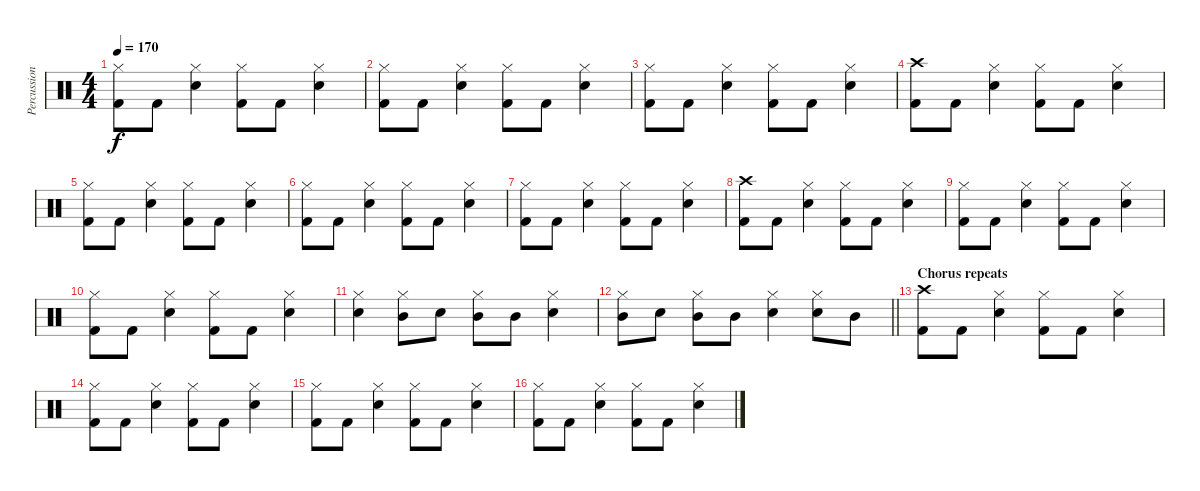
\track ("Percussion" "Percussion") {instrument percussion}
\staff {score}
\articulation defaults
\ts (4 4)
\tempo 170
\clef neutral
\ks c
("Hi-Hat (closed)" "Kick (hit) 2").8{dy f} "Kick (hit) 2".8 ("Hi-Hat (closed)" "Electric Snare (hit)").4 ("Hi-Hat (closed)" "Kick (hit) 2").8 "Kick (hit) 2".8 ("Hi-Hat (closed)" "Electric Snare (hit)").4 |
("Hi-Hat (closed)" "Kick (hit) 2").8 "Kick (hit) 2".8 ("Hi-Hat (closed)" "Electric Snare (hit)").4 ("Hi-Hat (closed)" "Kick (hit) 2").8 "Kick (hit) 2".8 ("Hi-Hat (closed)" "Electric Snare (hit)").4 |
("Hi-Hat (closed)" "Kick (hit) 2").8 "Kick (hit) 2".8 ("Hi-Hat (closed)" "Electric Snare (hit)").4 ("Hi-Hat (closed)" "Kick (hit) 2").8 "Kick (hit) 2".8 ("Hi-Hat (closed)" "Electric Snare (hit)").4 |
("Crash high (hit)" "Kick (hit) 2").8 "Kick (hit) 2".8 ("Hi-Hat (closed)" "Electric Snare (hit)").4 ("Hi-Hat (closed)" "Kick (hit) 2").8 "Kick (hit) 2".8 ("Hi-Hat (closed)" "Electric Snare (hit)").4 |
("Hi-Hat (closed)" "Kick (hit) 2").8 "Kick (hit) 2".8 ("Hi-Hat (closed)" "Electric Snare (hit)").4 ("Hi-Hat (closed)" "Kick (hit) 2").8 "Kick (hit) 2".8 ("Hi-Hat (closed)" "Electric Snare (hit)").4 |
("Hi-Hat (closed)" "Kick (hit) 2").8 "Kick (hit) 2".8 ("Hi-Hat (closed)" "Electric Snare (hit)").4 ("Hi-Hat (closed)" "Kick (hit) 2").8 "Kick (hit) 2".8 ("Hi-Hat (closed)" "Electric Snare (hit)").4 |
("Hi-Hat (closed)" "Kick (hit) 2").8 "Kick (hit) 2".8 ("Hi-Hat (closed)" "Electric Snare (hit)").4 ("Hi-Hat (closed)" "Kick (hit) 2").8 "Kick (hit) 2".8 ("Hi-Hat (closed)" "Electric Snare (hit)").4 |
("Crash high (hit)" "Kick (hit) 2").8 "Kick (hit) 2".8 ("Hi-Hat (closed)" "Electric Snare (hit)").4 ("Hi-Hat (closed)" "Kick (hit) 2").8 "Kick (hit) 2".8 ("Hi-Hat (closed)" "Electric Snare (hit)").4 |
("Hi-Hat (closed)" "Kick (hit) 2").8 "Kick (hit) 2".8 ("Hi-Hat (closed)" "Electric Snare (hit)").4 ("Hi-Hat (closed)" "Kick (hit) 2").8 "Kick (hit) 2".8 ("Hi-Hat (closed)" "Electric Snare (hit)").4 |
("Hi-Hat (closed)" "Kick (hit) 2").8 "Kick (hit) 2".8 ("Hi-Hat (closed)" "Electric Snare (hit)").4 ("Hi-Hat (closed)" "Kick (hit) 2").8 "Kick (hit) 2".8 ("Hi-Hat (closed)" "Electric Snare (hit)").4 |
("Hi-Hat (closed)" "Electric Snare (hit)").4 ("Hi-Hat (closed)" "Mid Tom (hit)").8 "Electric Snare (hit)".8 ("Hi-Hat (closed)" "Mid Tom (hit)").8 "Mid Tom (hit)".8 ("Hi-Hat (closed)" "Electric Snare (hit)").4 |
\barLineRight lightlight
("Hi-Hat (closed)" "Mid Tom (hit)").8 "Electric Snare (hit)".8 ("Hi-Hat (closed)" "Mid Tom (hit)").8 "Mid Tom (hit)".8 ("Hi-Hat (closed)" "Electric Snare (hit)").4 ("Hi-Hat (closed)" "Electric Snare (hit)").8 "Mid Tom (hit)".8 |
\section ("" "Chorus repeats")
("Crash high (hit)" "Kick (hit) 2").8 "Kick (hit) 2".8 ("Hi-Hat (closed)" "Electric Snare (hit)").4 ("Hi-Hat (closed)" "Kick (hit) 2").8 "Kick (hit) 2".8 ("Hi-Hat (closed)" "Electric Snare (hit)").4 |
("Hi-Hat (closed)" "Kick (hit) 2").8 "Kick (hit) 2".8 ("Hi-Hat (closed)" "Electric Snare (hit)").4 ("Hi-Hat (closed)" "Kick (hit) 2").8 "Kick (hit) 2".8 ("Hi-Hat (closed)" "Electric Snare (hit)").4 |
("Hi-Hat (closed)" "Kick (hit) 2").8 "Kick (hit) 2".8 ("Hi-Hat (closed)" "Electric Snare (hit)").4 ("Hi-Hat (closed)" "Kick (hit) 2").8 "Kick (hit) 2".8 ("Hi-Hat (closed)" "Electric Snare (hit)").4 |
("Hi-Hat (closed)" "Kick (hit) 2").8 "Kick (hit) 2".8 ("Hi-Hat (closed)" "Electric Snare (hit)").4 ("Hi-Hat (closed)" "Kick (hit) 2").8 "Kick (hit) 2".8 ("Hi-Hat (closed)" "Electric Snare (hit)").4
